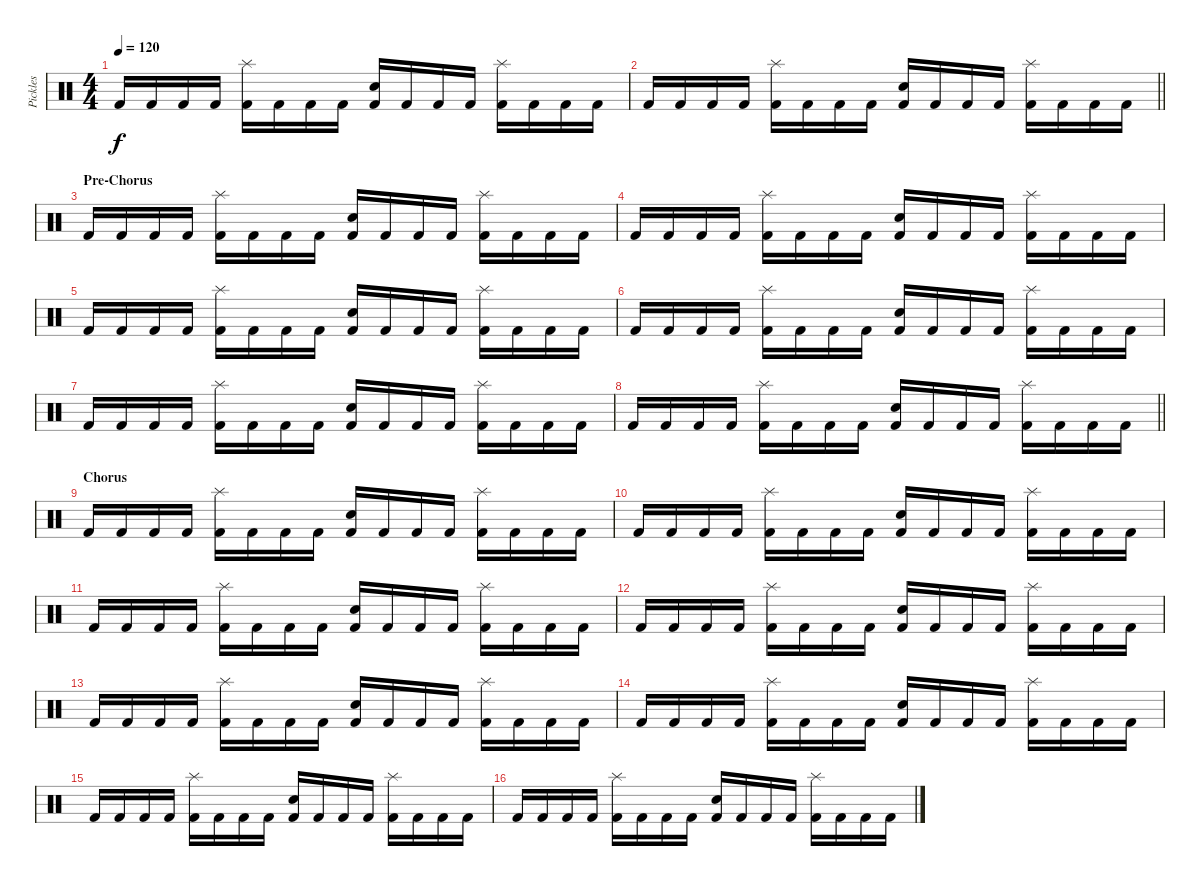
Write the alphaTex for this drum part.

\track ("Pickles" "Pickles") {instrument percussion}
\staff {score}
\articulation defaults
\ts (4 4)
\tempo 120
\clef neutral
\ks c "Kick (hit) 2".16{dy f} "Kick (hit) 2".16 "Kick (hit) 2".16 "Kick (hit) 2".16
("Splash (hit)" "Kick (hit) 2").16 "Kick (hit) 2".16 "Kick (hit) 2".16 "Kick (hit) 2".16 ("Electric Snare (hit)" "Kick (hit) 2").16 "Kick (hit) 2".16 "Kick (hit) 2".16 "Kick (hit) 2".16 ("Splash (hit)" "Kick (hit) 2").16 "Kick (hit) 2".16 "Kick (hit) 2".16 "Kick (hit) 2".16 |
\barLineRight lightlight "Kick (hit) 2".16 "Kick (hit) 2".16 "Kick (hit) 2".16 "Kick (hit) 2".16
("Splash (hit)" "Kick (hit) 2").16 "Kick (hit) 2".16 "Kick (hit) 2".16 "Kick (hit) 2".16 ("Electric Snare (hit)" "Kick (hit) 2").16 "Kick (hit) 2".16 "Kick (hit) 2".16 "Kick (hit) 2".16 ("Splash (hit)" "Kick (hit) 2").16 "Kick (hit) 2".16 "Kick (hit) 2".16 "Kick (hit) 2".16 |
\section ("" "Pre-Chorus")
"Kick (hit) 2".16 "Kick (hit) 2".16 "Kick (hit) 2".16 "Kick (hit) 2".16 ("Splash (hit)" "Kick (hit) 2").16 "Kick (hit) 2".16 "Kick (hit) 2".16 "Kick (hit) 2".16 ("Electric Snare (hit)" "Kick (hit) 2").16 "Kick (hit) 2".16 "Kick (hit) 2".16 "Kick (hit) 2".16 ("Splash (hit)" "Kick (hit) 2").16 "Kick (hit) 2".16 "Kick (hit) 2".16 "Kick (hit) 2".16 |
"Kick (hit) 2".16 "Kick (hit) 2".16 "Kick (hit) 2".16 "Kick (hit) 2".16 ("Splash (hit)" "Kick (hit) 2").16 "Kick (hit) 2".16 "Kick (hit) 2".16 "Kick (hit) 2".16 ("Electric Snare (hit)" "Kick (hit) 2").16 "Kick (hit) 2".16 "Kick (hit) 2".16 "Kick (hit) 2".16 ("Splash (hit)" "Kick (hit) 2").16 "Kick (hit) 2".16 "Kick (hit) 2".16 "Kick (hit) 2".16 |
"Kick (hit) 2".16 "Kick (hit) 2".16 "Kick (hit) 2".16 "Kick (hit) 2".16 ("Splash (hit)" "Kick (hit) 2").16 "Kick (hit) 2".16 "Kick (hit) 2".16 "Kick (hit) 2".16 ("Electric Snare (hit)" "Kick (hit) 2").16 "Kick (hit) 2".16 "Kick (hit) 2".16 "Kick (hit) 2".16 ("Splash (hit)" "Kick (hit) 2").16 "Kick (hit) 2".16 "Kick (hit) 2".16 "Kick (hit) 2".16 |
"Kick (hit) 2".16 "Kick (hit) 2".16 "Kick (hit) 2".16 "Kick (hit) 2".16 ("Splash (hit)" "Kick (hit) 2").16 "Kick (hit) 2".16 "Kick (hit) 2".16 "Kick (hit) 2".16 ("Electric Snare (hit)" "Kick (hit) 2").16 "Kick (hit) 2".16 "Kick (hit) 2".16 "Kick (hit) 2".16 ("Splash (hit)" "Kick (hit) 2").16 "Kick (hit) 2".16 "Kick (hit) 2".16 "Kick (hit) 2".16 |
"Kick (hit) 2".16 "Kick (hit) 2".16 "Kick (hit) 2".16 "Kick (hit) 2".16 ("Splash (hit)" "Kick (hit) 2").16 "Kick (hit) 2".16 "Kick (hit) 2".16 "Kick (hit) 2".16 ("Electric Snare (hit)" "Kick (hit) 2").16 "Kick (hit) 2".16 "Kick (hit) 2".16 "Kick (hit) 2".16 ("Splash (hit)" "Kick (hit) 2").16 "Kick (hit) 2".16 "Kick (hit) 2".16 "Kick (hit) 2".16 |
\barLineRight lightlight "Kick (hit) 2".16 "Kick (hit) 2".16 "Kick (hit) 2".16 "Kick (hit) 2".16
("Splash (hit)" "Kick (hit) 2").16 "Kick (hit) 2".16 "Kick (hit) 2".16 "Kick (hit) 2".16 ("Electric Snare (hit)" "Kick (hit) 2").16 "Kick (hit) 2".16 "Kick (hit) 2".16 "Kick (hit) 2".16 ("Splash (hit)" "Kick (hit) 2").16 "Kick (hit) 2".16 "Kick (hit) 2".16 "Kick (hit) 2".16 |
\section ("" "Chorus")
"Kick (hit) 2".16 "Kick (hit) 2".16 "Kick (hit) 2".16 "Kick (hit) 2".16 ("Splash (hit)" "Kick (hit) 2").16 "Kick (hit) 2".16 "Kick (hit) 2".16 "Kick (hit) 2".16 ("Electric Snare (hit)" "Kick (hit) 2").16 "Kick (hit) 2".16 "Kick (hit) 2".16 "Kick (hit) 2".16 ("Splash (hit)" "Kick (hit) 2").16 "Kick (hit) 2".16 "Kick (hit) 2".16 "Kick (hit) 2".16 |
"Kick (hit) 2".16 "Kick (hit) 2".16 "Kick (hit) 2".16 "Kick (hit) 2".16 ("Splash (hit)" "Kick (hit) 2").16 "Kick (hit) 2".16 "Kick (hit) 2".16 "Kick (hit) 2".16 ("Electric Snare (hit)" "Kick (hit) 2").16 "Kick (hit) 2".16 "Kick (hit) 2".16 "Kick (hit) 2".16 ("Splash (hit)" "Kick (hit) 2").16 "Kick (hit) 2".16 "Kick (hit) 2".16 "Kick (hit) 2".16 |
"Kick (hit) 2".16 "Kick (hit) 2".16 "Kick (hit) 2".16 "Kick (hit) 2".16 ("Splash (hit)" "Kick (hit) 2").16 "Kick (hit) 2".16 "Kick (hit) 2".16 "Kick (hit) 2".16 ("Electric Snare (hit)" "Kick (hit) 2").16 "Kick (hit) 2".16 "Kick (hit) 2".16 "Kick (hit) 2".16 ("Splash (hit)" "Kick (hit) 2").16 "Kick (hit) 2".16 "Kick (hit) 2".16 "Kick (hit) 2".16 |
"Kick (hit) 2".16 "Kick (hit) 2".16 "Kick (hit) 2".16 "Kick (hit) 2".16 ("Splash (hit)" "Kick (hit) 2").16 "Kick (hit) 2".16 "Kick (hit) 2".16 "Kick (hit) 2".16 ("Electric Snare (hit)" "Kick (hit) 2").16 "Kick (hit) 2".16 "Kick (hit) 2".16 "Kick (hit) 2".16 ("Splash (hit)" "Kick (hit) 2").16 "Kick (hit) 2".16 "Kick (hit) 2".16 "Kick (hit) 2".16 |
"Kick (hit) 2".16 "Kick (hit) 2".16 "Kick (hit) 2".16 "Kick (hit) 2".16 ("Splash (hit)" "Kick (hit) 2").16 "Kick (hit) 2".16 "Kick (hit) 2".16 "Kick (hit) 2".16 ("Electric Snare (hit)" "Kick (hit) 2").16 "Kick (hit) 2".16 "Kick (hit) 2".16 "Kick (hit) 2".16 ("Splash (hit)" "Kick (hit) 2").16 "Kick (hit) 2".16 "Kick (hit) 2".16 "Kick (hit) 2".16 |
"Kick (hit) 2".16 "Kick (hit) 2".16 "Kick (hit) 2".16 "Kick (hit) 2".16 ("Splash (hit)" "Kick (hit) 2").16 "Kick (hit) 2".16 "Kick (hit) 2".16 "Kick (hit) 2".16 ("Electric Snare (hit)" "Kick (hit) 2").16 "Kick (hit) 2".16 "Kick (hit) 2".16 "Kick (hit) 2".16 ("Splash (hit)" "Kick (hit) 2").16 "Kick (hit) 2".16 "Kick (hit) 2".16 "Kick (hit) 2".16 |
"Kick (hit) 2".16 "Kick (hit) 2".16 "Kick (hit) 2".16 "Kick (hit) 2".16 ("Splash (hit)" "Kick (hit) 2").16 "Kick (hit) 2".16 "Kick (hit) 2".16 "Kick (hit) 2".16 ("Electric Snare (hit)" "Kick (hit) 2").16 "Kick (hit) 2".16 "Kick (hit) 2".16 "Kick (hit) 2".16 ("Splash (hit)" "Kick (hit) 2").16 "Kick (hit) 2".16 "Kick (hit) 2".16 "Kick (hit) 2".16 |
"Kick (hit) 2".16 "Kick (hit) 2".16 "Kick (hit) 2".16 "Kick (hit) 2".16 ("Splash (hit)" "Kick (hit) 2").16 "Kick (hit) 2".16 "Kick (hit) 2".16 "Kick (hit) 2".16 ("Electric Snare (hit)" "Kick (hit) 2").16 "Kick (hit) 2".16 "Kick (hit) 2".16 "Kick (hit) 2".16 ("Splash (hit)" "Kick (hit) 2").16 "Kick (hit) 2".16 "Kick (hit) 2".16 "Kick (hit) 2".16
